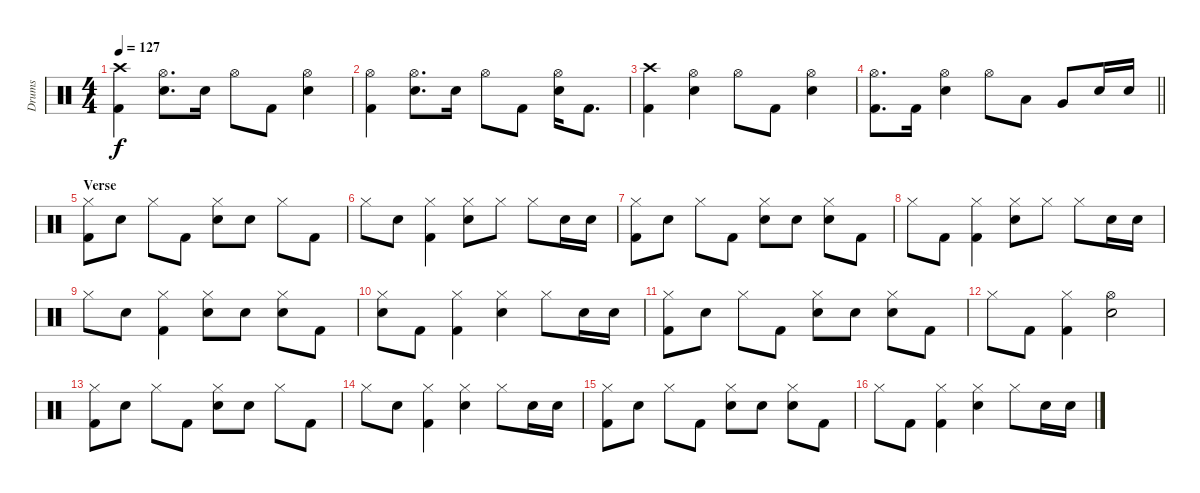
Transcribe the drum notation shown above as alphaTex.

\track ("Drums" "Drums") {instrument percussion}
\staff {score}
\articulation defaults
\ts (4 4)
\tempo 127
\clef neutral
\ks c
("Crash high (hit)" "Kick (hit) 2").4{dy f} ("Hi-Hat (open)" "Electric Snare (hit)").8{d} "Electric Snare (hit)".16 "Hi-Hat (open)".8 "Kick (hit) 2".8 ("Hi-Hat (open)" "Electric Snare (hit)").4 |
("Hi-Hat (open)" "Kick (hit) 2").4 ("Hi-Hat (open)" "Electric Snare (hit)").8{d} "Electric Snare (hit)".16 "Hi-Hat (open)".8 "Kick (hit) 2".8 ("Hi-Hat (open)" "Electric Snare (hit)").16 "Kick (hit) 2".8{d} |
("Crash high (hit)" "Kick (hit) 2").4 ("Hi-Hat (open)" "Electric Snare (hit)").4 "Hi-Hat (open)".8 "Kick (hit) 2".8 ("Hi-Hat (open)" "Electric Snare (hit)").4 |
\barLineRight lightlight
("Hi-Hat (open)" "Kick (hit) 2").8{d} "Kick (hit) 2".16 ("Hi-Hat (open)" "Electric Snare (hit)").4 "Hi-Hat (open)".8 "Low Tom (hit)".8 "Very Low Tom (hit)".8 "Electric Snare (hit)".16 "Electric Snare (hit)".16 |
\section ("" "Verse")
("Hi-Hat (closed)" "Kick (hit) 2").8 "Electric Snare (hit)".8 "Hi-Hat (closed)".8 "Kick (hit) 2".8 ("Hi-Hat (closed)" "Electric Snare (hit)").8 "Electric Snare (hit)".8 "Hi-Hat (closed)".8 "Kick (hit) 2".8 |
"Hi-Hat (closed)".8 "Electric Snare (hit)".8 ("Hi-Hat (closed)" "Kick (hit) 2").4 ("Hi-Hat (closed)" "Electric Snare (hit)").8 "Hi-Hat (closed)".8 "Hi-Hat (closed)".8 "Electric Snare (hit)".16 "Electric Snare (hit)".16 |
("Hi-Hat (closed)" "Kick (hit) 2").8 "Electric Snare (hit)".8 "Hi-Hat (closed)".8 "Kick (hit) 2".8 ("Hi-Hat (closed)" "Electric Snare (hit)").8 "Electric Snare (hit)".8 ("Hi-Hat (closed)" "Electric Snare (hit)").8 "Kick (hit) 2".8 |
"Hi-Hat (closed)".8 "Kick (hit) 2".8 ("Hi-Hat (closed)" "Kick (hit) 2").4 ("Hi-Hat (closed)" "Electric Snare (hit)").8 "Hi-Hat (closed)".8 "Hi-Hat (closed)".8 "Electric Snare (hit)".16 "Electric Snare (hit)".16 |
"Hi-Hat (closed)".8 "Electric Snare (hit)".8 ("Hi-Hat (closed)" "Kick (hit) 2").4 ("Hi-Hat (closed)" "Electric Snare (hit)").8 "Electric Snare (hit)".8 ("Hi-Hat (closed)" "Electric Snare (hit)").8 "Kick (hit) 2".8 |
("Hi-Hat (closed)" "Electric Snare (hit)").8 "Kick (hit) 2".8 ("Hi-Hat (closed)" "Kick (hit) 2").4 ("Hi-Hat (closed)" "Electric Snare (hit)").4 "Hi-Hat (closed)".8 "Electric Snare (hit)".16 "Electric Snare (hit)".16 |
("Hi-Hat (closed)" "Kick (hit) 2").8 "Electric Snare (hit)".8 "Hi-Hat (closed)".8 "Kick (hit) 2".8 ("Hi-Hat (closed)" "Electric Snare (hit)").8 "Electric Snare (hit)".8 ("Hi-Hat (closed)" "Electric Snare (hit)").8 "Kick (hit) 2".8 |
"Hi-Hat (closed)".8 "Kick (hit) 2".8 ("Hi-Hat (closed)" "Kick (hit) 2").4 ("Hi-Hat (open)" "Electric Snare (hit)").2 |
("Hi-Hat (closed)" "Kick (hit) 2").8 "Electric Snare (hit)".8 "Hi-Hat (closed)".8 "Kick (hit) 2".8 ("Hi-Hat (closed)" "Electric Snare (hit)").8 "Electric Snare (hit)".8 "Hi-Hat (closed)".8 "Kick (hit) 2".8 |
"Hi-Hat (closed)".8 "Electric Snare (hit)".8 ("Hi-Hat (closed)" "Kick (hit) 2").4 ("Hi-Hat (closed)" "Electric Snare (hit)").4 "Hi-Hat (closed)".8 "Electric Snare (hit)".16 "Electric Snare (hit)".16 |
("Hi-Hat (closed)" "Kick (hit) 2").8 "Electric Snare (hit)".8 "Hi-Hat (closed)".8 "Kick (hit) 2".8 ("Hi-Hat (closed)" "Electric Snare (hit)").8 "Electric Snare (hit)".8 ("Hi-Hat (closed)" "Electric Snare (hit)").8 "Kick (hit) 2".8 |
"Hi-Hat (closed)".8 "Kick (hit) 2".8 ("Hi-Hat (closed)" "Kick (hit) 2").4 ("Hi-Hat (closed)" "Electric Snare (hit)").4 "Hi-Hat (closed)".8 "Electric Snare (hit)".16 "Electric Snare (hit)".16
